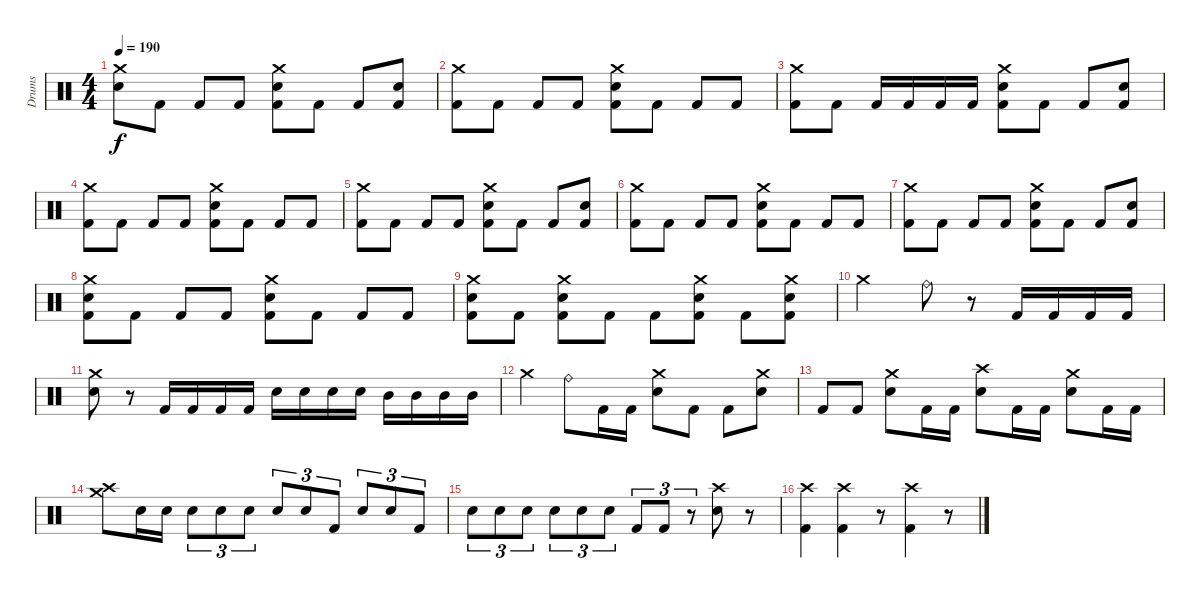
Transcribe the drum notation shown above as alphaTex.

\track ("Drums" "Drums") {instrument percussion}
\staff {score}
\articulation defaults
\ts (4 4)
\tempo 190
\clef neutral
\ks c
("Crash medium (hit)" "Electric Snare (hit)").8{dy f} "Kick (hit) 2".8 "Kick (hit) 2".8 "Kick (hit) 2".8 ("Crash medium (hit)" "Electric Snare (hit)" "Kick (hit) 2").8 "Kick (hit) 2".8 "Kick (hit) 2".8 ("Electric Snare (hit)" "Kick (hit) 2").8 |
("Crash medium (hit)" "Kick (hit) 2").8 "Kick (hit) 2".8 "Kick (hit) 2".8 "Kick (hit) 2".8 ("Crash medium (hit)" "Electric Snare (hit)" "Kick (hit) 2").8 "Kick (hit) 2".8 "Kick (hit) 2".8 "Kick (hit) 2".8 |
("Crash medium (hit)" "Kick (hit) 2").8 "Kick (hit) 2".8 "Kick (hit) 2".16 "Kick (hit) 2".16 "Kick (hit) 2".16 "Kick (hit) 2".16 ("Crash medium (hit)" "Electric Snare (hit)" "Kick (hit) 2").8 "Kick (hit) 2".8 "Kick (hit) 2".8 ("Electric Snare (hit)" "Kick (hit) 2").8 |
("Crash medium (hit)" "Kick (hit) 2").8 "Kick (hit) 2".8 "Kick (hit) 2".8 "Kick (hit) 2".8 ("Crash medium (hit)" "Electric Snare (hit)" "Kick (hit) 2").8 "Kick (hit) 2".8 "Kick (hit) 2".8 "Kick (hit) 2".8 |
("Crash medium (hit)" "Kick (hit) 2").8 "Kick (hit) 2".8 "Kick (hit) 2".8 "Kick (hit) 2".8 ("Crash medium (hit)" "Electric Snare (hit)" "Kick (hit) 2").8 "Kick (hit) 2".8 "Kick (hit) 2".8 ("Electric Snare (hit)" "Kick (hit) 2").8 |
("Crash medium (hit)" "Kick (hit) 2").8 "Kick (hit) 2".8 "Kick (hit) 2".8 "Kick (hit) 2".8 ("Crash medium (hit)" "Electric Snare (hit)" "Kick (hit) 2").8 "Kick (hit) 2".8 "Kick (hit) 2".8 "Kick (hit) 2".8 |
("Crash medium (hit)" "Kick (hit) 2").8 "Kick (hit) 2".8 "Kick (hit) 2".8 "Kick (hit) 2".8 ("Crash medium (hit)" "Electric Snare (hit)" "Kick (hit) 2").8 "Kick (hit) 2".8 "Kick (hit) 2".8 ("Electric Snare (hit)" "Kick (hit) 2").8 |
("Crash medium (hit)" "Electric Snare (hit)" "Kick (hit) 2").8 "Kick (hit) 2".8 "Kick (hit) 2".8 "Kick (hit) 2".8 ("Crash medium (hit)" "Electric Snare (hit)" "Kick (hit) 2").8 "Kick (hit) 2".8 "Kick (hit) 2".8 "Kick (hit) 2".8 |
("Crash medium (hit)" "Electric Snare (hit)" "Kick (hit) 2").8 "Kick (hit) 2".8 ("Crash medium (hit)" "Electric Snare (hit)" "Kick (hit) 2").8 "Kick (hit) 2".8 "Kick (hit) 2".8 ("Crash medium (hit)" "Electric Snare (hit)" "Kick (hit) 2").8 "Kick (hit) 2".8 ("Crash medium (hit)" "Electric Snare (hit)" "Kick (hit) 2").8 |
"Crash medium (hit)".2 "Ride (bell)".8 r.8 "Kick (hit) 2".16 "Kick (hit) 2".16 "Kick (hit) 2".16 "Kick (hit) 2".16 |
("Crash medium (hit)" "Electric Snare (hit)").8 r.8 "Kick (hit) 2".16 "Kick (hit) 2".16 "Kick (hit) 2".16 "Kick (hit) 2".16 "Electric Snare (hit)".16 "Electric Snare (hit)".16 "Electric Snare (hit)".16 "Electric Snare (hit)".16 "Mid Tom (hit)".16 "Mid Tom (hit)".16 "Mid Tom (hit)".16 "Mid Tom (hit)".16 |
"Crash medium (hit)".4 "Ride (bell)".8 "Kick (hit) 2".16 "Kick (hit) 2".16 ("Crash medium (hit)" "Electric Snare (hit)").8 "Kick (hit) 2".8 "Kick (hit) 2".8 ("Crash medium (hit)" "Electric Snare (hit)").8 |
"Kick (hit) 2".8 "Kick (hit) 2".8 ("Crash medium (hit)" "Electric Snare (hit)").8 "Kick (hit) 2".16 "Kick (hit) 2".16 ("Crash high (hit)" "Electric Snare (hit)").8 "Kick (hit) 2".16 "Kick (hit) 2".16 ("Crash medium (hit)" "Electric Snare (hit)").8 "Kick (hit) 2".16 "Kick (hit) 2".16 |
("Crash medium (hit)" "Crash high (hit)").8 "Electric Snare (hit)".16{volume 10} "Electric Snare (hit)".16{volume 12} "Electric Snare (hit)".8{tu (3 2)} "Electric Snare (hit)".8{tu (3 2)} "Electric Snare (hit)".8{tu (3 2)} "Electric Snare (hit)".8{tu (3 2)} "Electric Snare (hit)".8{tu (3 2)} "Kick (hit) 2".8{tu (3 2)} "Electric Snare (hit)".8{tu (3 2)} "Electric Snare (hit)".8{tu (3 2)} "Kick (hit) 2".8{tu (3 2)} |
"Electric Snare (hit)".8{tu (3 2)} "Electric Snare (hit)".8{tu (3 2)} "Electric Snare (hit)".8{tu (3 2)} "Electric Snare (hit)".8{tu (3 2)} "Electric Snare (hit)".8{tu (3 2)} "Electric Snare (hit)".8{tu (3 2)} "Kick (hit) 2".8{tu (3 2)} "Kick (hit) 2".8{tu (3 2)} r.8{tu (3 2)} ("Crash high (hit)" "Electric Snare (hit)").8 r.8 |
("Crash high (hit)" "Kick (hit) 2").4 ("Crash high (hit)" "Kick (hit) 2").4 r.8 ("Crash high (hit)" "Kick (hit) 2").4 r.8
